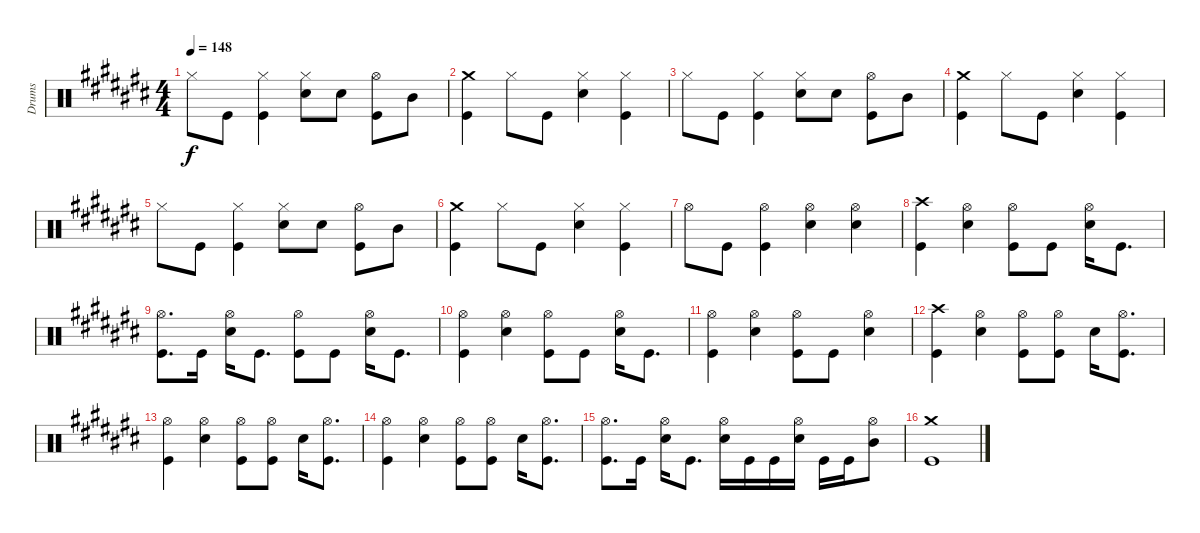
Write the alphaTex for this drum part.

\track ("Drums" "Drums") {instrument percussion}
\staff {score}
\articulation defaults
\ts (4 4)
\tempo 148
\clef neutral
\ks c# "Hi-Hat (closed)".8{dy f} "Kick (hit)".8
("Hi-Hat (closed)" "Kick (hit)").4 ("Hi-Hat (closed)" "Snare (hit) 2").8 "Snare (hit) 2".8 ("Hi-Hat (open)" "Kick (hit)").8 "Mid Tom (hit)".8 |
("Crash medium (hit)" "Kick (hit)").4 "Hi-Hat (closed)".8 "Kick (hit)".8 ("Hi-Hat (closed)" "Snare (hit) 2").4 ("Hi-Hat (closed)" "Kick (hit)").4 |
"Hi-Hat (closed)".8 "Kick (hit)".8 ("Hi-Hat (closed)" "Kick (hit)").4 ("Hi-Hat (closed)" "Snare (hit) 2").8 "Snare (hit) 2".8 ("Hi-Hat (open)" "Kick (hit)").8 "Mid Tom (hit)".8 |
("Crash medium (hit)" "Kick (hit)").4 "Hi-Hat (closed)".8 "Kick (hit)".8 ("Hi-Hat (closed)" "Snare (hit) 2").4 ("Hi-Hat (closed)" "Kick (hit)").4 |
"Hi-Hat (closed)".8 "Kick (hit)".8 ("Hi-Hat (closed)" "Kick (hit)").4 ("Hi-Hat (closed)" "Snare (hit) 2").8 "Snare (hit) 2".8 ("Hi-Hat (open)" "Kick (hit)").8 "Mid Tom (hit)".8 |
("Crash medium (hit)" "Kick (hit)").4 "Hi-Hat (closed)".8 "Kick (hit)".8 ("Hi-Hat (closed)" "Snare (hit) 2").4 ("Hi-Hat (closed)" "Kick (hit)").4 |
"Hi-Hat (open)".8 "Kick (hit)".8 ("Hi-Hat (open)" "Kick (hit)").4 ("Hi-Hat (open)" "Snare (hit) 2").4 ("Hi-Hat (open)" "Snare (hit) 2").4 |
("Crash high (hit)" "Kick (hit)").4 ("Hi-Hat (open)" "Snare (hit) 2").4 ("Hi-Hat (open)" "Kick (hit)").8 "Kick (hit)".8 ("Hi-Hat (open)" "Snare (hit) 2").16 "Kick (hit)".8{d} |
("Hi-Hat (open)" "Kick (hit)").8{d} "Kick (hit)".16 ("Hi-Hat (open)" "Snare (hit) 2").16 "Kick (hit)".8{d} ("Hi-Hat (open)" "Kick (hit)").8 "Kick (hit)".8 ("Hi-Hat (open)" "Snare (hit) 2").16 "Kick (hit)".8{d} |
("Hi-Hat (open)" "Kick (hit)").4 ("Hi-Hat (open)" "Snare (hit) 2").4 ("Hi-Hat (open)" "Kick (hit)").8 "Kick (hit)".8 ("Hi-Hat (open)" "Snare (hit) 2").16 "Kick (hit)".8{d} |
("Hi-Hat (open)" "Kick (hit)").4 ("Hi-Hat (open)" "Snare (hit) 2").4 ("Hi-Hat (open)" "Kick (hit)").8 "Kick (hit)".8 ("Hi-Hat (open)" "Snare (hit) 2").4 |
("Crash high (hit)" "Kick (hit)").4 ("Hi-Hat (open)" "Snare (hit) 2").4 ("Hi-Hat (open)" "Kick (hit)").8 ("Hi-Hat (open)" "Kick (hit)").8 "Snare (hit) 2".16 ("Hi-Hat (open)" "Kick (hit)").8{d} |
("Hi-Hat (open)" "Kick (hit)").4 ("Hi-Hat (open)" "Snare (hit) 2").4 ("Hi-Hat (open)" "Kick (hit)").8 ("Hi-Hat (open)" "Kick (hit)").8 "Snare (hit) 2".16 ("Hi-Hat (open)" "Kick (hit)").8{d} |
("Hi-Hat (open)" "Kick (hit)").4 ("Hi-Hat (open)" "Snare (hit) 2").4 ("Hi-Hat (open)" "Kick (hit)").8 ("Hi-Hat (open)" "Kick (hit)").8 "Snare (hit) 2".16 ("Hi-Hat (open)" "Kick (hit)").8{d} |
("Hi-Hat (open)" "Kick (hit)").8{d} "Kick (hit)".16 ("Hi-Hat (open)" "Snare (hit) 2").16 "Kick (hit)".8{d} ("Hi-Hat (open)" "Snare (hit) 2").16 "Kick (hit)".16 "Kick (hit)".16 ("Hi-Hat (open)" "Snare (hit) 2").16 "Kick (hit)".16 "Kick (hit)".16 ("Hi-Hat (open)" "Mid Tom (hit)").8 |
("Crash medium (hit)" "Kick (hit)").1
